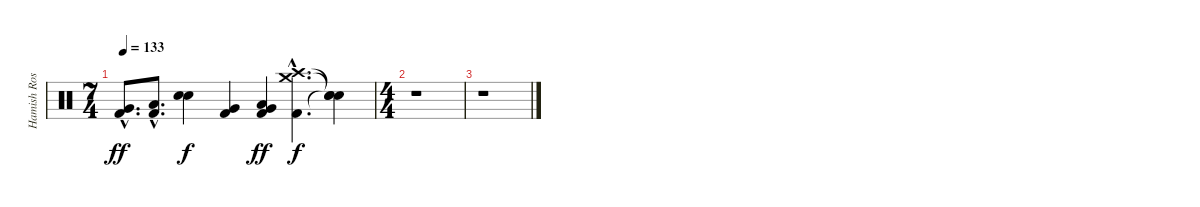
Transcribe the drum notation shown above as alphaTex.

\track ("Hamish Rosser" "Hamish Ros") {instrument percussion}
\staff {score}
\articulation defaults
\ts (7 4)
\tempo 133
\clef neutral
\ks c
("Very Low Tom (hit)"{hac} "Kick (hit) 2"{hac}).8{d dy ff} ("Low Tom (hit)"{hac} "Kick (hit) 2"{hac}).8{d} ("Electric Snare (hit)" "Electric Snare (hit)").4{bu 240 dy f} ("Very Low Tom (hit)" "Kick (hit) 2").4 ("Low Tom (hit)" "Very Low Tom (hit)" "Kick (hit) 2").4{dy ff} ("Crash medium (hit)"{hac} "Crash high (hit)"{hac} "Kick (hit) 2"{hac}).4{d dy f} ("Snare (hit)"{t} "Snare (hit)"{t} "Snare (hit)"{t}).4 |
\ts (4 4)
r.1 |
r.1
